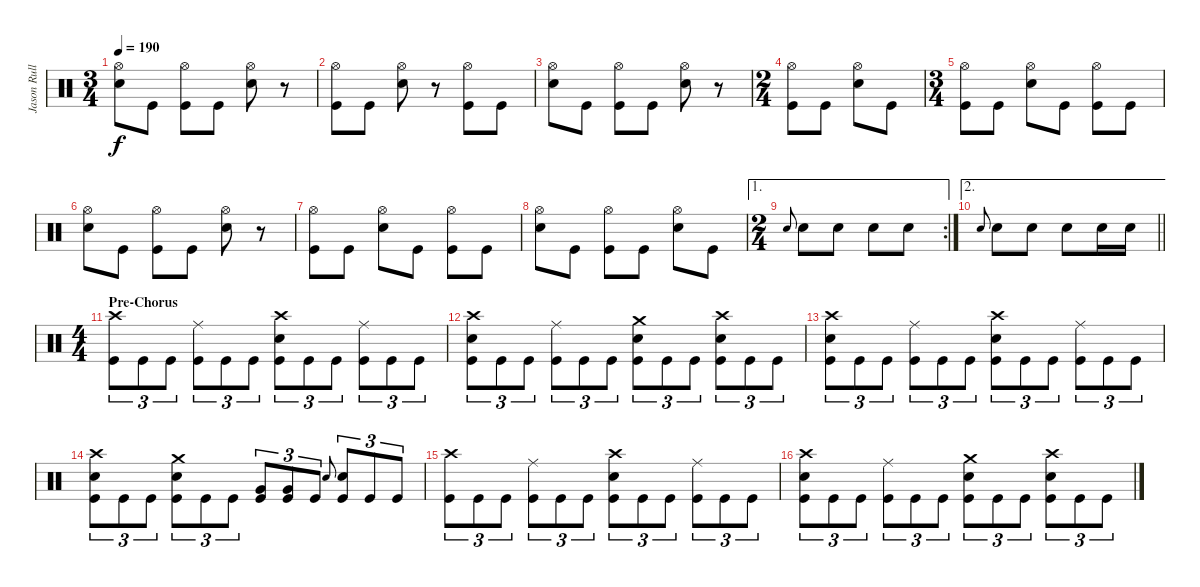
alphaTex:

\track ("Jason Rullo - Drums and Percussion" "Jason Rull") {instrument percussion}
\staff {score}
\articulation defaults
\ts (3 4)
\tempo 190
\clef neutral
\ks c
("Snare (hit) 2" "Hi-Hat (open)").8{dy f} "Kick (hit)".8 ("Kick (hit)" "Hi-Hat (open)").8 "Kick (hit)".8 ("Snare (hit) 2" "Hi-Hat (open)").8 r.8 |
("Kick (hit)" "Hi-Hat (open)").8 "Kick (hit)".8 ("Snare (hit) 2" "Hi-Hat (open)").8 r.8 ("Kick (hit)" "Hi-Hat (open)").8 "Kick (hit)".8 |
("Snare (hit) 2" "Hi-Hat (open)").8 "Kick (hit)".8 ("Kick (hit)" "Hi-Hat (open)").8 "Kick (hit)".8 ("Snare (hit) 2" "Hi-Hat (open)").8 r.8 |
\ts (2 4)
("Kick (hit)" "Hi-Hat (open)").8 "Kick (hit)".8 ("Snare (hit) 2" "Hi-Hat (open)").8 "Kick (hit)".8 |
\ts (3 4)
("Kick (hit)" "Hi-Hat (open)").8 "Kick (hit)".8 ("Snare (hit) 2" "Hi-Hat (open)").8 "Kick (hit)".8 ("Kick (hit)" "Hi-Hat (open)").8 "Kick (hit)".8 |
("Snare (hit) 2" "Hi-Hat (open)").8 "Kick (hit)".8 ("Kick (hit)" "Hi-Hat (open)").8 "Kick (hit)".8 ("Snare (hit) 2" "Hi-Hat (open)").8 r.8 |
("Kick (hit)" "Hi-Hat (open)").8 "Kick (hit)".8 ("Hi-Hat (open)" "Snare (hit) 2").8 "Kick (hit)".8 ("Kick (hit)" "Hi-Hat (open)").8 "Kick (hit)".8 |
("Snare (hit) 2" "Hi-Hat (open)").8 "Kick (hit)".8 ("Kick (hit)" "Hi-Hat (open)").8 "Kick (hit)".8 ("Snare (hit) 2" "Hi-Hat (open)").8 "Kick (hit)".8 |
\ae 1
\rc 2
\ts (2 4)
"Snare (hit) 2".8{gr onbeat} "Snare (hit) 2".8 "Snare (hit) 2".8 "Snare (hit) 2".8 "Snare (hit) 2".8 |
\ae 2
\barLineRight lightlight "Snare (hit) 2".8{gr onbeat} "Snare (hit) 2".8 "Snare (hit) 2".8 "Snare (hit) 2".8 "Snare (hit) 2".16 "Snare (hit) 2".16
|
\ts (4 4)
\section ("" "Pre-Chorus")
("Kick (hit)" "Crash high (hit)").8{tu (3 2)} "Kick (hit)".8{tu (3 2)} "Kick (hit)".8{tu (3 2)} ("Kick (hit)" "Ride (middle)").8{tu (3 2)} "Kick (hit)".8{tu (3 2)} "Kick (hit)".8{tu (3 2)} ("Snare (hit) 2" "Kick (hit)" "Crash high (hit)").8{tu (3 2)} "Kick (hit)".8{tu (3 2)} "Kick (hit)".8{tu (3 2)} ("Kick (hit)" "Ride (middle)").8{tu (3 2)} "Kick (hit)".8{tu (3 2)} "Kick (hit)".8{tu (3 2)} |
("Snare (hit) 2" "Kick (hit)" "Crash high (hit)").8{tu (3 2)} "Kick (hit)".8{tu (3 2)} "Kick (hit)".8{tu (3 2)} ("Kick (hit)" "Ride (middle)").8{tu (3 2)} "Kick (hit)".8{tu (3 2)} "Kick (hit)".8{tu (3 2)} ("Kick (hit)" "Snare (hit) 2" "Crash medium (hit)").8{tu (3 2)} "Kick (hit)".8{tu (3 2)} "Kick (hit)".8{tu (3 2)} ("Kick (hit)" "Snare (hit) 2" "Crash high (hit)").8{tu (3 2)} "Kick (hit)".8{tu (3 2)} "Kick (hit)".8{tu (3 2)} |
("Kick (hit)" "Crash high (hit)" "Snare (hit) 2").8{tu (3 2)} "Kick (hit)".8{tu (3 2)} "Kick (hit)".8{tu (3 2)} ("Kick (hit)" "Ride (middle)").8{tu (3 2)} "Kick (hit)".8{tu (3 2)} "Kick (hit)".8{tu (3 2)} ("Snare (hit) 2" "Kick (hit)" "Crash high (hit)").8{tu (3 2)} "Kick (hit)".8{tu (3 2)} "Kick (hit)".8{tu (3 2)} ("Kick (hit)" "Ride (middle)").8{tu (3 2)} "Kick (hit)".8{tu (3 2)} "Kick (hit)".8{tu (3 2)} |
("Kick (hit)" "Crash high (hit)" "Snare (hit) 2").8{tu (3 2)} "Kick (hit)".8{tu (3 2)} "Kick (hit)".8{tu (3 2)} ("Kick (hit)" "Snare (hit) 2" "Crash medium (hit)").8{tu (3 2)} "Kick (hit)".8{tu (3 2)} "Kick (hit)".8{tu (3 2)} ("Very Low Tom (hit)" "Kick (hit)").8{tu (3 2)} ("Kick (hit)" "Very Low Tom (hit)").8{tu (3 2)} "Kick (hit)".8{tu (3 2)} "Snare (hit) 2".8{gr onbeat} ("Kick (hit)" "Snare (hit) 2").8{tu (3 2)} "Kick (hit)".8{tu (3 2)} "Kick (hit)".8{tu (3 2)} |
("Kick (hit)" "Crash high (hit)").8{tu (3 2)} "Kick (hit)".8{tu (3 2)} "Kick (hit)".8{tu (3 2)} ("Kick (hit)" "Ride (middle)").8{tu (3 2)} "Kick (hit)".8{tu (3 2)} "Kick (hit)".8{tu (3 2)} ("Snare (hit) 2" "Kick (hit)" "Crash high (hit)").8{tu (3 2)} "Kick (hit)".8{tu (3 2)} "Kick (hit)".8{tu (3 2)} ("Kick (hit)" "Ride (middle)").8{tu (3 2)} "Kick (hit)".8{tu (3 2)} "Kick (hit)".8{tu (3 2)} |
("Snare (hit) 2" "Kick (hit)" "Crash high (hit)").8{tu (3 2)} "Kick (hit)".8{tu (3 2)} "Kick (hit)".8{tu (3 2)} ("Kick (hit)" "Ride (middle)").8{tu (3 2)} "Kick (hit)".8{tu (3 2)} "Kick (hit)".8{tu (3 2)} ("Kick (hit)" "Snare (hit) 2" "Crash medium (hit)").8{tu (3 2)} "Kick (hit)".8{tu (3 2)} "Kick (hit)".8{tu (3 2)} ("Kick (hit)" "Snare (hit) 2" "Crash high (hit)").8{tu (3 2)} "Kick (hit)".8{tu (3 2)} "Kick (hit)".8{tu (3 2)}
